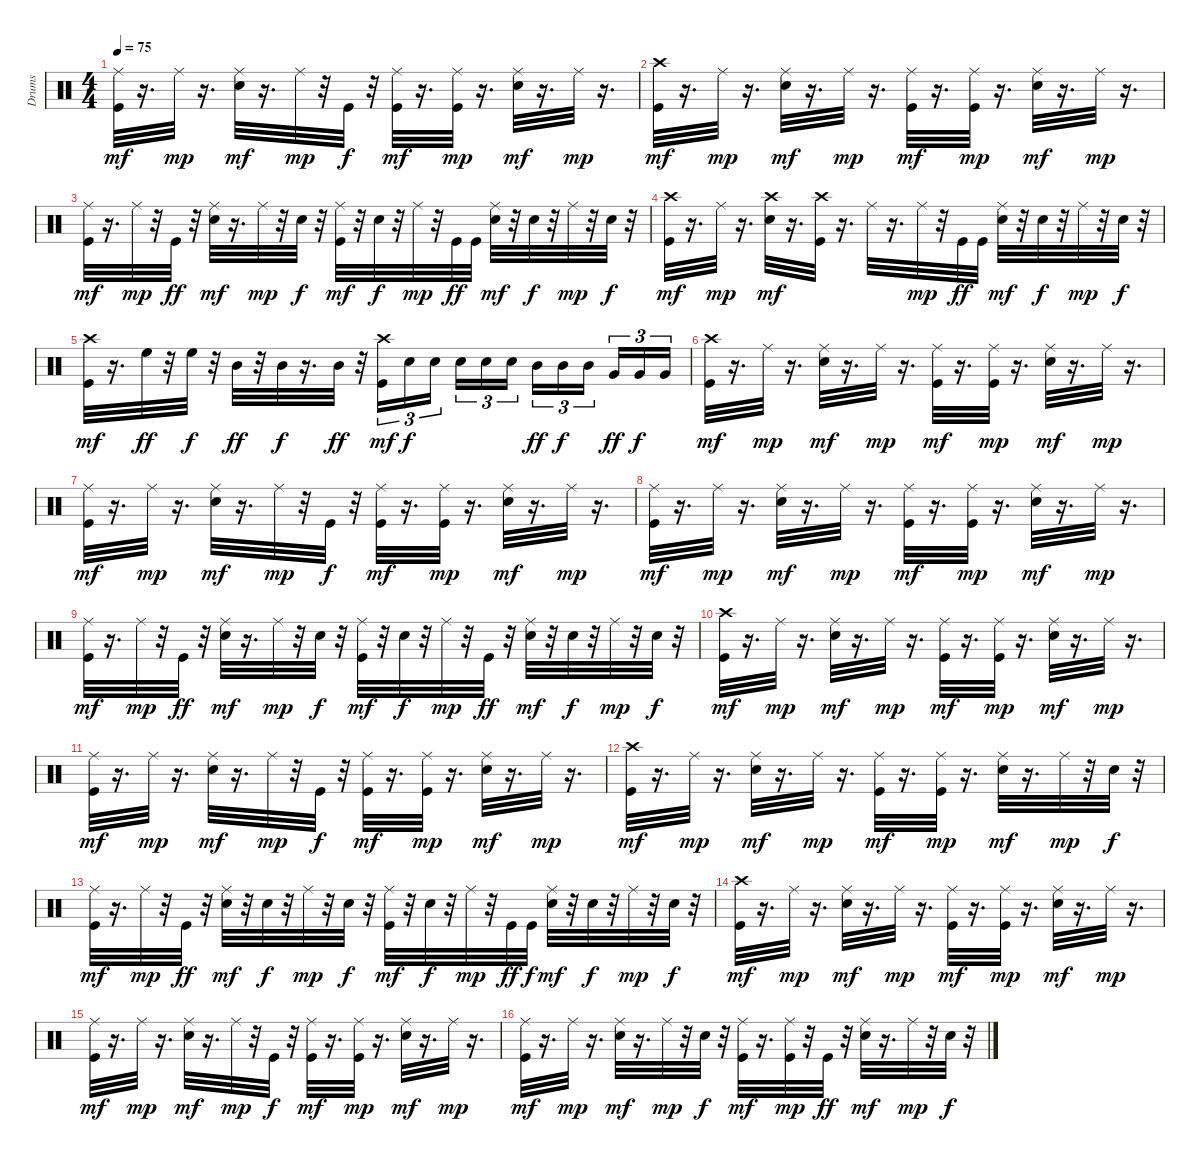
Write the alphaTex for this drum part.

\track ("Drums" "Drums") {instrument percussion}
\staff {score}
\articulation defaults
\ts (4 4)
\tempo 75
\clef neutral
\ks c
("Kick (hit)" "Ride (middle)").32{dy mf} r.16{d} "Ride (middle)".32{dy mp} r.16{d} ("Snare (hit) 2" "Ride (middle)").32{dy mf} r.16{d} "Ride (middle)".32{dy mp} r.32 "Kick (hit)".32{dy f} r.32 ("Kick (hit)" "Ride (middle)").32{dy mf} r.16{d} ("Kick (hit)" "Ride (middle)").32{dy mp} r.16{d} ("Snare (hit) 2" "Ride (middle)").32{dy mf} r.16{d} "Ride (middle)".32{dy mp} r.16{d} |
("Kick (hit)" "Crash high (hit)").32{dy mf} r.16{d} "Ride (middle)".32{dy mp} r.16{d} ("Snare (hit) 2" "Ride (middle)").32{dy mf} r.16{d} "Ride (middle)".32{dy mp} r.16{d} ("Kick (hit)" "Ride (middle)").32{dy mf} r.16{d} ("Kick (hit)" "Ride (middle)").32{dy mp} r.16{d} ("Snare (hit) 2" "Ride (middle)").32{dy mf} r.16{d} "Ride (middle)".32{dy mp} r.16{d} |
("Kick (hit)" "Ride (middle)").32{dy mf} r.16{d} "Ride (middle)".32{dy mp} r.32 "Kick (hit)".32{dy ff} r.32 ("Snare (hit) 2" "Ride (middle)").32{dy mf} r.16{d} "Ride (middle)".32{dy mp} r.32 "Snare (hit) 2".32{dy f} r.32 ("Kick (hit)" "Ride (middle)").32{dy mf} r.32 "Snare (hit) 2".32{dy f} r.32 "Ride (middle)".32{dy mp} r.32 "Kick (hit)".32{dy ff} "Kick (hit)".32 ("Snare (hit) 2" "Ride (middle)").32{dy mf} r.32 "Snare (hit) 2".32{dy f} r.32 "Ride (middle)".32{dy mp} r.32 "Snare (hit) 2".32{dy f} r.32 |
("Kick (hit)" "Crash high (hit)").32{dy mf} r.16{d} "Ride (middle)".32{dy mp} r.16{d} ("Snare (hit) 2" "Crash high (hit)").32{dy mf} r.16{d} ("Kick (hit)" "Crash high (hit)").32 r.16{d} "Ride (middle)".32 r.16{d} "Ride (middle)".32{dy mp} r.32 "Kick (hit)".32{dy ff} "Kick (hit)".32 ("Snare (hit) 2" "Ride (middle)").32{dy mf} r.32 "Snare (hit) 2".32{dy f} r.32 "Ride (middle)".32{dy mp} r.32 "Snare (hit) 2".32{dy f} r.32 |
("Kick (hit)" "Crash high (hit)").32{dy mf} r.16{d} "High Floor Tom (hit)".32{dy ff} r.32 "High Floor Tom (hit)".32{dy f} r.32 "Mid Tom (hit)".32{dy ff} r.32 "Mid Tom (hit)".32{dy f} r.16{d} "Mid Tom (hit)".32{dy ff} r.32 ("Kick (hit)" "Crash high (hit)").16{tu (3 2) dy mf} "Snare (hit) 2".16{tu (3 2) dy f} "Snare (hit) 2".16{tu (3 2)} "Snare (hit) 2".16{tu (3 2)} "Snare (hit) 2".16{tu (3 2)} "Snare (hit) 2".16{tu (3 2)} "Mid Tom (hit)".16{tu (3 2) dy ff} "Mid Tom (hit)".16{tu (3 2) dy f} "Mid Tom (hit)".16{tu (3 2)} "Very Low Tom (hit)".16{tu (3 2) dy ff} "Very Low Tom (hit)".16{tu (3 2) dy f} "Very Low Tom (hit)".16{tu (3 2)} |
("Kick (hit)" "Crash high (hit)").32{dy mf} r.16{d} "Ride (middle)".32{dy mp} r.16{d} ("Snare (hit) 2" "Ride (middle)").32{dy mf} r.16{d} "Ride (middle)".32{dy mp} r.16{d} ("Kick (hit)" "Ride (middle)").32{dy mf} r.16{d} ("Kick (hit)" "Ride (middle)").32{dy mp} r.16{d} ("Snare (hit) 2" "Ride (middle)").32{dy mf} r.16{d} "Ride (middle)".32{dy mp} r.16{d} |
("Kick (hit)" "Ride (middle)").32{dy mf} r.16{d} "Ride (middle)".32{dy mp} r.16{d} ("Snare (hit) 2" "Ride (middle)").32{dy mf} r.16{d} "Ride (middle)".32{dy mp} r.32 "Kick (hit)".32{dy f} r.32 ("Kick (hit)" "Ride (middle)").32{dy mf} r.16{d} ("Kick (hit)" "Ride (middle)").32{dy mp} r.16{d} ("Snare (hit) 2" "Ride (middle)").32{dy mf} r.16{d} "Ride (middle)".32{dy mp} r.16{d} |
("Kick (hit)" "Ride (middle)").32{dy mf} r.16{d} "Ride (middle)".32{dy mp} r.16{d} ("Snare (hit) 2" "Ride (middle)").32{dy mf} r.16{d} "Ride (middle)".32{dy mp} r.16{d} ("Kick (hit)" "Ride (middle)").32{dy mf} r.16{d} ("Kick (hit)" "Ride (middle)").32{dy mp} r.16{d} ("Snare (hit) 2" "Ride (middle)").32{dy mf} r.16{d} "Ride (middle)".32{dy mp} r.16{d} |
("Kick (hit)" "Ride (middle)").32{dy mf} r.16{d} "Ride (middle)".32{dy mp} r.32 "Kick (hit)".32{dy ff} r.32 ("Snare (hit) 2" "Ride (middle)").32{dy mf} r.16{d} "Ride (middle)".32{dy mp} r.32 "Snare (hit) 2".32{dy f} r.32 ("Kick (hit)" "Ride (middle)").32{dy mf} r.32 "Snare (hit) 2".32{dy f} r.32 "Ride (middle)".32{dy mp} r.32 "Kick (hit)".32{dy ff} r.32 ("Snare (hit) 2" "Ride (middle)").32{dy mf} r.32 "Snare (hit) 2".32{dy f} r.32 "Ride (middle)".32{dy mp} r.32 "Snare (hit) 2".32{dy f} r.32 |
("Kick (hit)" "Crash high (hit)").32{dy mf} r.16{d} "Ride (middle)".32{dy mp} r.16{d} ("Snare (hit) 2" "Ride (middle)").32{dy mf} r.16{d} "Ride (middle)".32{dy mp} r.16{d} ("Kick (hit)" "Ride (middle)").32{dy mf} r.16{d} ("Kick (hit)" "Ride (middle)").32{dy mp} r.16{d} ("Snare (hit) 2" "Ride (middle)").32{dy mf} r.16{d} "Ride (middle)".32{dy mp} r.16{d} |
("Kick (hit)" "Ride (middle)").32{dy mf} r.16{d} "Ride (middle)".32{dy mp} r.16{d} ("Snare (hit) 2" "Ride (middle)").32{dy mf} r.16{d} "Ride (middle)".32{dy mp} r.32 "Kick (hit)".32{dy f} r.32 ("Kick (hit)" "Ride (middle)").32{dy mf} r.16{d} ("Kick (hit)" "Ride (middle)").32{dy mp} r.16{d} ("Snare (hit) 2" "Ride (middle)").32{dy mf} r.16{d} "Ride (middle)".32{dy mp} r.16{d} |
("Kick (hit)" "Crash high (hit)").32{dy mf} r.16{d} "Ride (middle)".32{dy mp} r.16{d} ("Snare (hit) 2" "Ride (middle)").32{dy mf} r.16{d} "Ride (middle)".32{dy mp} r.16{d} ("Kick (hit)" "Ride (middle)").32{dy mf} r.16{d} ("Kick (hit)" "Ride (middle)").32{dy mp} r.16{d} ("Snare (hit) 2" "Ride (middle)").32{dy mf} r.16{d} "Ride (middle)".32{dy mp} r.32 "Snare (hit) 2".32{dy f} r.32 |
("Kick (hit)" "Ride (middle)").32{dy mf} r.16{d} "Ride (middle)".32{dy mp} r.32 "Kick (hit)".32{dy ff} r.32 ("Snare (hit) 2" "Ride (middle)").32{dy mf} r.32 "Snare (hit) 2".32{dy f} r.32 "Ride (middle)".32{dy mp} r.32 "Snare (hit) 2".32{dy f} r.32 ("Kick (hit)" "Ride (middle)").32{dy mf} r.32 "Snare (hit) 2".32{dy f} r.32 "Ride (middle)".32{dy mp} r.32 "Kick (hit)".32{dy ff} "Kick (hit)".32{dy f} ("Snare (hit) 2" "Ride (middle)").32{dy mf} r.32 "Snare (hit) 2".32{dy f} r.32 "Ride (middle)".32{dy mp} r.32 "Snare (hit) 2".32{dy f} r.32 |
("Kick (hit)" "Crash high (hit)").32{dy mf} r.16{d} "Ride (middle)".32{dy mp} r.16{d} ("Snare (hit) 2" "Ride (middle)").32{dy mf} r.16{d} "Ride (middle)".32{dy mp} r.16{d} ("Kick (hit)" "Ride (middle)").32{dy mf} r.16{d} ("Kick (hit)" "Ride (middle)").32{dy mp} r.16{d} ("Snare (hit) 2" "Ride (middle)").32{dy mf} r.16{d} "Ride (middle)".32{dy mp} r.16{d} |
("Kick (hit)" "Ride (middle)").32{dy mf} r.16{d} "Ride (middle)".32{dy mp} r.16{d} ("Snare (hit) 2" "Ride (middle)").32{dy mf} r.16{d} "Ride (middle)".32{dy mp} r.32 "Kick (hit)".32{dy f} r.32 ("Kick (hit)" "Ride (middle)").32{dy mf} r.16{d} ("Kick (hit)" "Ride (middle)").32{dy mp} r.16{d} ("Snare (hit) 2" "Ride (middle)").32{dy mf} r.16{d} "Ride (middle)".32{dy mp} r.16{d} |
("Kick (hit)" "Ride (middle)").32{dy mf} r.16{d} "Ride (middle)".32{dy mp} r.16{d} ("Snare (hit) 2" "Ride (middle)").32{dy mf} r.16{d} "Ride (middle)".32{dy mp} r.32 "Snare (hit) 2".32{dy f} r.32 ("Kick (hit)" "Ride (middle)").32{dy mf} r.16{d} ("Kick (hit)" "Ride (middle)").32{dy mp} r.32 "Kick (hit)".32{dy ff} r.32 ("Snare (hit) 2" "Ride (middle)").32{dy mf} r.16{d} "Ride (middle)".32{dy mp} r.32 "Snare (hit) 2".32{dy f} r.32
